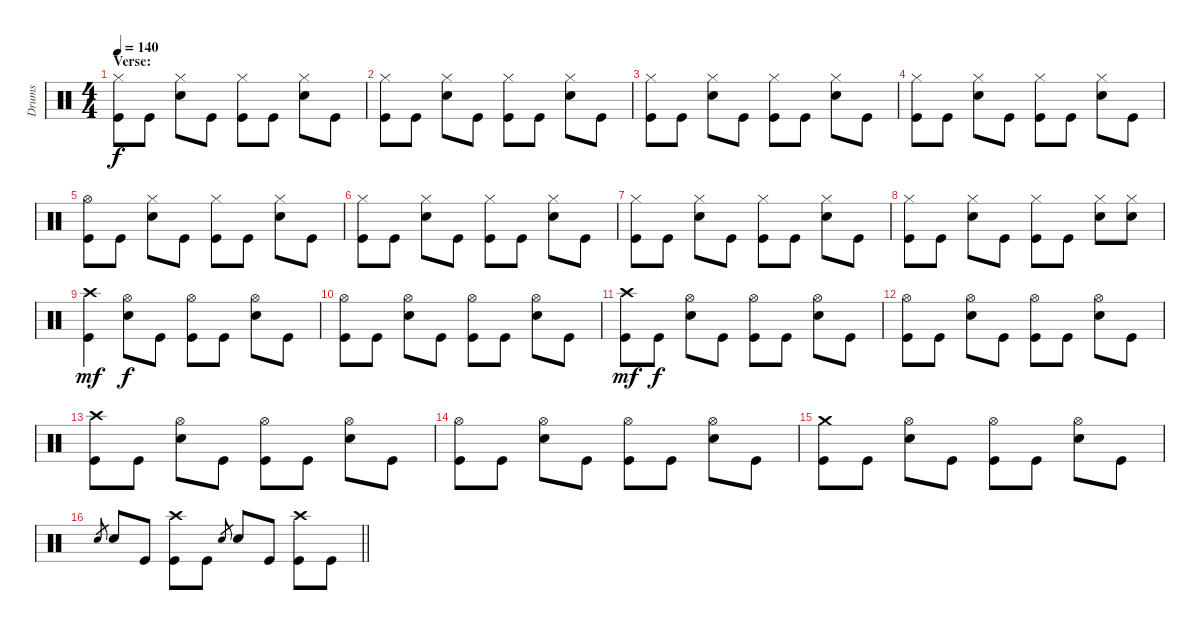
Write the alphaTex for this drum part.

\track ("Drums" "Drums") {instrument percussion}
\staff {score}
\articulation defaults
\ts (4 4)
\section ("" "Verse:")
\tempo 140
\clef neutral
\ks c
("Kick (hit)" "Hi-Hat (closed)").8{dy f} "Kick (hit)".8 ("Snare (hit) 2" "Hi-Hat (closed)").8 "Kick (hit)".8 ("Kick (hit)" "Hi-Hat (closed)").8 "Kick (hit)".8 ("Snare (hit) 2" "Hi-Hat (closed)").8 "Kick (hit)".8 |
("Hi-Hat (closed)" "Kick (hit)").8 "Kick (hit)".8 ("Snare (hit) 2" "Hi-Hat (closed)").8 "Kick (hit)".8 ("Kick (hit)" "Hi-Hat (closed)").8 "Kick (hit)".8 ("Snare (hit) 2" "Hi-Hat (closed)").8 "Kick (hit)".8 |
("Kick (hit)" "Hi-Hat (closed)").8 "Kick (hit)".8 ("Snare (hit) 2" "Hi-Hat (closed)").8 "Kick (hit)".8 ("Kick (hit)" "Hi-Hat (closed)").8 "Kick (hit)".8 ("Snare (hit) 2" "Hi-Hat (closed)").8 "Kick (hit)".8 |
("Hi-Hat (closed)" "Kick (hit)").8 "Kick (hit)".8 ("Snare (hit) 2" "Hi-Hat (closed)").8 "Kick (hit)".8 ("Kick (hit)" "Hi-Hat (closed)").8 "Kick (hit)".8 ("Snare (hit) 2" "Hi-Hat (closed)").8 "Kick (hit)".8 |
("Kick (hit)" "Hi-Hat (open)").8 "Kick (hit)".8 ("Snare (hit) 2" "Hi-Hat (closed)").8 "Kick (hit)".8 ("Kick (hit)" "Hi-Hat (closed)").8 "Kick (hit)".8 ("Snare (hit) 2" "Hi-Hat (closed)").8 "Kick (hit)".8 |
("Hi-Hat (closed)" "Kick (hit)").8 "Kick (hit)".8 ("Snare (hit) 2" "Hi-Hat (closed)").8 "Kick (hit)".8 ("Kick (hit)" "Hi-Hat (closed)").8 "Kick (hit)".8 ("Snare (hit) 2" "Hi-Hat (closed)").8 "Kick (hit)".8 |
("Kick (hit)" "Hi-Hat (closed)").8 "Kick (hit)".8 ("Snare (hit) 2" "Hi-Hat (closed)").8 "Kick (hit)".8 ("Kick (hit)" "Hi-Hat (closed)").8 "Kick (hit)".8 ("Snare (hit) 2" "Hi-Hat (closed)").8 "Kick (hit)".8 |
("Hi-Hat (closed)" "Kick (hit)").8 "Kick (hit)".8 ("Snare (hit) 2" "Hi-Hat (closed)").8 "Kick (hit)".8 ("Kick (hit)" "Hi-Hat (closed)").8 "Kick (hit)".8 ("Snare (hit) 2" "Hi-Hat (closed)").8 ("Snare (hit) 2" "Hi-Hat (closed)").8 |
("Kick (hit)" "Crash high (hit)").4{dy mf} ("Snare (hit) 2" "Hi-Hat (open)").8{dy f} "Kick (hit)".8 ("Kick (hit)" "Hi-Hat (open)").8 "Kick (hit)".8 ("Snare (hit) 2" "Hi-Hat (open)").8 "Kick (hit)".8 |
("Kick (hit)" "Hi-Hat (open)").8 "Kick (hit)".8 ("Snare (hit) 2" "Hi-Hat (open)").8 "Kick (hit)".8 ("Kick (hit)" "Hi-Hat (open)").8 "Kick (hit)".8 ("Snare (hit) 2" "Hi-Hat (open)").8 "Kick (hit)".8 |
("Kick (hit)" "Crash high (hit)").8{dy mf} "Kick (hit)".8{dy f} ("Snare (hit) 2" "Hi-Hat (open)").8 "Kick (hit)".8 ("Kick (hit)" "Hi-Hat (open)").8 "Kick (hit)".8 ("Snare (hit) 2" "Hi-Hat (open)").8 "Kick (hit)".8 |
("Kick (hit)" "Hi-Hat (open)").8 "Kick (hit)".8 ("Snare (hit) 2" "Hi-Hat (open)").8 "Kick (hit)".8 ("Kick (hit)" "Hi-Hat (open)").8 "Kick (hit)".8 ("Snare (hit) 2" "Hi-Hat (open)").8 "Kick (hit)".8 |
("Kick (hit)" "Crash high (hit)").8 "Kick (hit)".8 ("Snare (hit) 2" "Hi-Hat (open)").8 "Kick (hit)".8 ("Kick (hit)" "Hi-Hat (open)").8 "Kick (hit)".8 ("Snare (hit) 2" "Hi-Hat (open)").8 "Kick (hit)".8 |
("Kick (hit)" "Hi-Hat (open)").8 "Kick (hit)".8 ("Snare (hit) 2" "Hi-Hat (open)").8 "Kick (hit)".8 ("Kick (hit)" "Hi-Hat (open)").8 "Kick (hit)".8 ("Snare (hit) 2" "Hi-Hat (open)").8 "Kick (hit)".8 |
("Kick (hit)" "Crash medium (hit)").8 "Kick (hit)".8 ("Snare (hit) 2" "Hi-Hat (open)").8 "Kick (hit)".8 ("Kick (hit)" "Hi-Hat (open)").8 "Kick (hit)".8 ("Snare (hit) 2" "Hi-Hat (open)").8 "Kick (hit)".8 |
\barLineRight lightlight "Snare (hit) 2".8{gr} "Snare (hit) 2".8 "Kick (hit)".8
("Kick (hit)" "Crash high (hit)").8 "Kick (hit)".8 "Snare (hit) 2".8{gr} "Snare (hit) 2".8 "Kick (hit)".8 ("Kick (hit)" "Crash high (hit)").8 "Kick (hit)".8
